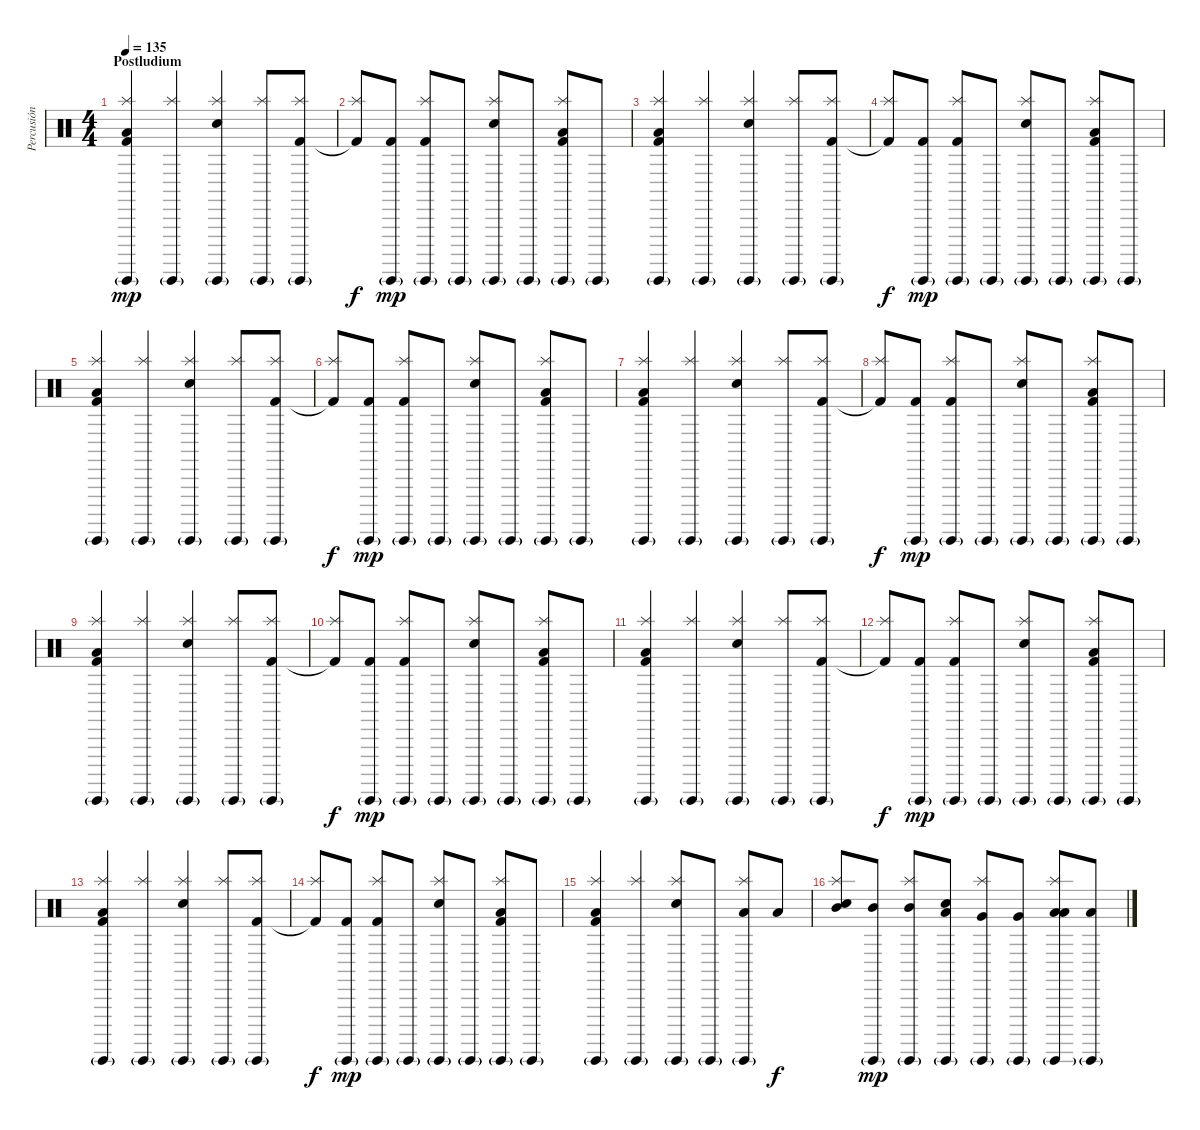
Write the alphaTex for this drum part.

\track ("Percusión" "Percusión") {instrument percussion}
\staff {score}
\articulation defaults
\ts (4 4)
\section ("" "Postludium")
\tempo 135
\clef neutral
\ks c
("Kick (hit) 2" "Guiro (hit)"{g} "Splash (hit)" "Low Floor Tom (hit)").4{dy mp volume 11} ("Splash (hit)" "Guiro (hit)"{g}).4 ("Snare (hit) 2" "Splash (hit)" "Guiro (hit)"{g}).4 ("Splash (hit)" "Guiro (hit)"{g}).8 ("Kick (hit) 2" "Splash (hit)" "Guiro (hit)"{g}).8 |
("Kick (hit) 2"{t} "Splash (hit)").8{dy f} ("Kick (hit) 2" "Guiro (hit)"{g}).8{dy mp} ("Kick (hit) 2" "Guiro (hit)"{g} "Splash (hit)").8 "Guiro (hit)"{g}.8 ("Snare (hit) 2" "Guiro (hit)"{g} "Splash (hit)").8 "Guiro (hit)"{g}.8 ("Kick (hit) 2" "Guiro (hit)"{g} "Splash (hit)" "Low Floor Tom (hit)").8 "Guiro (hit)"{g}.8 |
("Kick (hit) 2" "Guiro (hit)"{g} "Splash (hit)" "Low Floor Tom (hit)").4{volume 11} ("Splash (hit)" "Guiro (hit)"{g}).4 ("Snare (hit) 2" "Splash (hit)" "Guiro (hit)"{g}).4 ("Splash (hit)" "Guiro (hit)"{g}).8 ("Kick (hit) 2" "Splash (hit)" "Guiro (hit)"{g}).8 |
("Kick (hit) 2"{t} "Splash (hit)").8{dy f} ("Kick (hit) 2" "Guiro (hit)"{g}).8{dy mp} ("Kick (hit) 2" "Guiro (hit)"{g} "Splash (hit)").8 "Guiro (hit)"{g}.8 ("Snare (hit) 2" "Guiro (hit)"{g} "Splash (hit)").8 "Guiro (hit)"{g}.8 ("Kick (hit) 2" "Guiro (hit)"{g} "Splash (hit)" "Low Floor Tom (hit)").8 "Guiro (hit)"{g}.8 |
("Kick (hit) 2" "Guiro (hit)"{g} "Splash (hit)" "Low Floor Tom (hit)").4{volume 11} ("Splash (hit)" "Guiro (hit)"{g}).4 ("Snare (hit) 2" "Splash (hit)" "Guiro (hit)"{g}).4 ("Splash (hit)" "Guiro (hit)"{g}).8 ("Kick (hit) 2" "Splash (hit)" "Guiro (hit)"{g}).8 |
("Kick (hit) 2"{t} "Splash (hit)").8{dy f} ("Kick (hit) 2" "Guiro (hit)"{g}).8{dy mp} ("Kick (hit) 2" "Guiro (hit)"{g} "Splash (hit)").8 "Guiro (hit)"{g}.8 ("Snare (hit) 2" "Guiro (hit)"{g} "Splash (hit)").8 "Guiro (hit)"{g}.8 ("Kick (hit) 2" "Guiro (hit)"{g} "Splash (hit)" "Low Floor Tom (hit)").8 "Guiro (hit)"{g}.8 |
("Kick (hit) 2" "Guiro (hit)"{g} "Splash (hit)" "Low Floor Tom (hit)").4{volume 11} ("Splash (hit)" "Guiro (hit)"{g}).4 ("Snare (hit) 2" "Splash (hit)" "Guiro (hit)"{g}).4 ("Splash (hit)" "Guiro (hit)"{g}).8 ("Kick (hit) 2" "Splash (hit)" "Guiro (hit)"{g}).8 |
("Kick (hit) 2"{t} "Splash (hit)").8{dy f} ("Kick (hit) 2" "Guiro (hit)"{g}).8{dy mp} ("Kick (hit) 2" "Guiro (hit)"{g} "Splash (hit)").8 "Guiro (hit)"{g}.8 ("Snare (hit) 2" "Guiro (hit)"{g} "Splash (hit)").8 "Guiro (hit)"{g}.8 ("Kick (hit) 2" "Guiro (hit)"{g} "Splash (hit)" "Low Floor Tom (hit)").8 "Guiro (hit)"{g}.8 |
("Kick (hit) 2" "Guiro (hit)"{g} "Splash (hit)" "Low Floor Tom (hit)").4{volume 11} ("Splash (hit)" "Guiro (hit)"{g}).4 ("Snare (hit) 2" "Splash (hit)" "Guiro (hit)"{g}).4 ("Splash (hit)" "Guiro (hit)"{g}).8 ("Kick (hit) 2" "Splash (hit)" "Guiro (hit)"{g}).8 |
("Kick (hit) 2"{t} "Splash (hit)").8{dy f} ("Kick (hit) 2" "Guiro (hit)"{g}).8{dy mp} ("Kick (hit) 2" "Guiro (hit)"{g} "Splash (hit)").8 "Guiro (hit)"{g}.8 ("Snare (hit) 2" "Guiro (hit)"{g} "Splash (hit)").8 "Guiro (hit)"{g}.8 ("Kick (hit) 2" "Guiro (hit)"{g} "Splash (hit)" "Low Floor Tom (hit)").8 "Guiro (hit)"{g}.8 |
("Kick (hit) 2" "Guiro (hit)"{g} "Splash (hit)" "Low Floor Tom (hit)").4{volume 11} ("Splash (hit)" "Guiro (hit)"{g}).4 ("Snare (hit) 2" "Splash (hit)" "Guiro (hit)"{g}).4 ("Splash (hit)" "Guiro (hit)"{g}).8 ("Kick (hit) 2" "Splash (hit)" "Guiro (hit)"{g}).8 |
("Kick (hit) 2"{t} "Splash (hit)").8{dy f} ("Kick (hit) 2" "Guiro (hit)"{g}).8{dy mp} ("Kick (hit) 2" "Guiro (hit)"{g} "Splash (hit)").8 "Guiro (hit)"{g}.8 ("Snare (hit) 2" "Guiro (hit)"{g} "Splash (hit)").8 "Guiro (hit)"{g}.8 ("Kick (hit) 2" "Guiro (hit)"{g} "Splash (hit)" "Low Floor Tom (hit)").8 "Guiro (hit)"{g}.8 |
("Kick (hit) 2" "Guiro (hit)"{g} "Splash (hit)" "Low Floor Tom (hit)").4{volume 11} ("Splash (hit)" "Guiro (hit)"{g}).4 ("Snare (hit) 2" "Splash (hit)" "Guiro (hit)"{g}).4 ("Splash (hit)" "Guiro (hit)"{g}).8 ("Kick (hit) 2" "Splash (hit)" "Guiro (hit)"{g}).8 |
("Kick (hit) 2"{t} "Splash (hit)").8{dy f} ("Kick (hit) 2" "Guiro (hit)"{g}).8{dy mp} ("Kick (hit) 2" "Guiro (hit)"{g} "Splash (hit)").8 "Guiro (hit)"{g}.8 ("Snare (hit) 2" "Guiro (hit)"{g} "Splash (hit)").8 "Guiro (hit)"{g}.8 ("Kick (hit) 2" "Guiro (hit)"{g} "Splash (hit)" "Low Floor Tom (hit)").8 "Guiro (hit)"{g}.8 |
("Kick (hit) 2" "Guiro (hit)"{g} "Splash (hit)" "Low Floor Tom (hit)").4{volume 11} ("Splash (hit)" "Guiro (hit)"{g}).4 ("Electric Snare (hit)" "Splash (hit)" "Guiro (hit)"{g}).8 "Guiro (hit)"{g}.8 ("Low Floor Tom (hit)" "Splash (hit)" "Guiro (hit)"{g}).8 "Low Floor Tom (hit)".8{dy f} |
("Mid Tom (hit)" "Electric Snare (hit)" "Splash (hit)").8 ("Mid Tom (hit)" "Guiro (hit)"{g}).8{dy mp} ("Mid Tom (hit)" "Guiro (hit)"{g} "Splash (hit)").8 ("Low Tom (hit)" "Guiro (hit)"{g} "Snare (hit) 2").8 ("Very Low Tom (hit)" "Guiro (hit)"{g} "Splash (hit)").8 ("Very Low Tom (hit)" "Guiro (hit)"{g}).8 ("Low Floor Tom (hit)" "Guiro (hit)"{g} "Splash (hit)" "Low Floor Tom (hit)").8 ("Low Floor Tom (hit)" "Guiro (hit)"{g}).8
